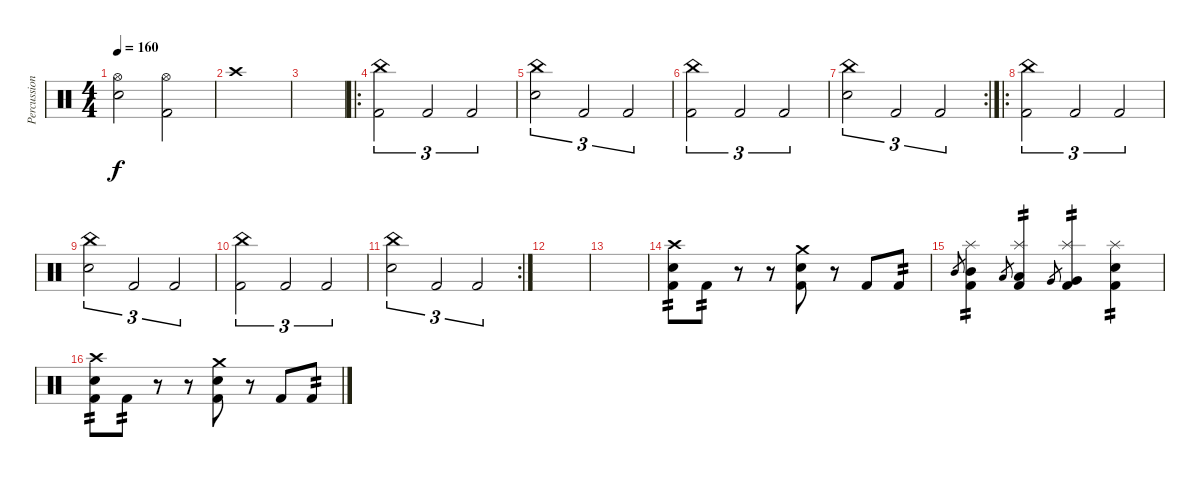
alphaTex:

\track ("Percussion" "Percussion") {instrument percussion}
\staff {score}
\articulation defaults
\ts (4 4)
\tempo 160
\clef neutral
\ks c
("Snare (hit) 2" "Hi-Hat (open)").2{dy f} ("Kick (hit) 2" "Hi-Hat (open)").2 |
"Crash high (hit)".1 |
|
\ro
("China (hit)" "Kick (hit) 2").2{tu (3 2)} "Kick (hit) 2".2{tu (3 2)} "Kick (hit) 2".2{tu (3 2)} |
("China (hit)" "Snare (hit) 2").2{tu (3 2)} "Kick (hit) 2".2{tu (3 2)} "Kick (hit) 2".2{tu (3 2)} |
("China (hit)" "Kick (hit) 2").2{tu (3 2)} "Kick (hit) 2".2{tu (3 2)} "Kick (hit) 2".2{tu (3 2)} |
\rc 2
("China (hit)" "Snare (hit) 2").2{tu (3 2)} "Kick (hit) 2".2{tu (3 2)} "Kick (hit) 2".2{tu (3 2)} |
\ro
("China (hit)" "Kick (hit) 2").2{tu (3 2)} "Kick (hit) 2".2{tu (3 2)} "Kick (hit) 2".2{tu (3 2)} |
("China (hit)" "Snare (hit) 2").2{tu (3 2)} "Kick (hit) 2".2{tu (3 2)} "Kick (hit) 2".2{tu (3 2)} |
("China (hit)" "Kick (hit) 2").2{tu (3 2)} "Kick (hit) 2".2{tu (3 2)} "Kick (hit) 2".2{tu (3 2)} |
\rc 2
("China (hit)" "Snare (hit) 2").2{tu (3 2)} "Kick (hit) 2".2{tu (3 2)} "Kick (hit) 2".2{tu (3 2)} |
|
|
("Crash high (hit)" "Snare (hit) 2" "Kick (hit) 2").8{tp 2} "Kick (hit) 2".8{tp 2} r.8 r.8 ("Crash medium (hit)" "Snare (hit) 2" "Kick (hit) 2").8 r.8 "Kick (hit) 2".8 "Kick (hit) 2".8{tp 2} |
"Mid Tom (hit)".8{gr} ("Splash (hit)" "Kick (hit) 2" "Mid Tom (hit)").4{tp 2} "Low Tom (hit)".8{gr} ("Splash (hit)" "Kick (hit) 2" "Low Tom (hit)").4{tp 2} "Very Low Tom (hit)".8{gr} ("Splash (hit)" "Kick (hit) 2" "Very Low Tom (hit)").4{tp 2} ("Splash (hit)" "Snare (hit) 2" "Kick (hit) 2").4{tp 2} |
("Crash high (hit)" "Snare (hit) 2" "Kick (hit) 2").8{tp 2} "Kick (hit) 2".8{tp 2} r.8 r.8 ("Crash medium (hit)" "Snare (hit) 2" "Kick (hit) 2").8 r.8 "Kick (hit) 2".8 "Kick (hit) 2".8{tp 2}
